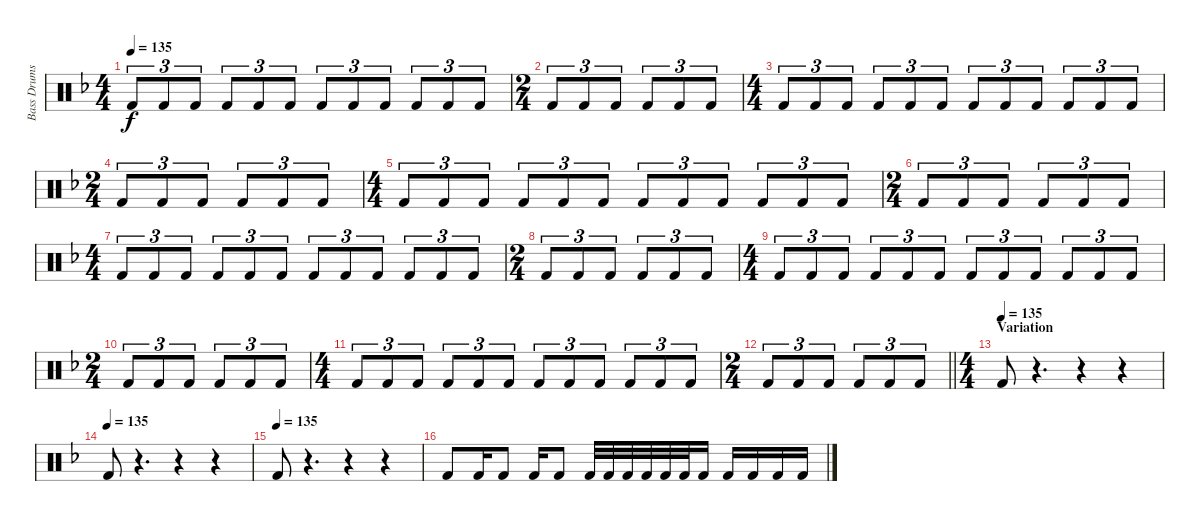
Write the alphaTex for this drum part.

\track ("Bass Drums" "Bass Drums") {instrument percussion}
\staff {score}
\articulation defaults
\ts (4 4)
\tempo 135
\clef neutral
\ks dminor "Kick (hit) 2".8{tu (3 2) dy f} "Kick (hit) 2".8{tu (3 2)} "Kick (hit) 2".8{tu (3 2)} "Kick (hit) 2".8{tu (3 2)} "Kick (hit) 2".8{tu (3 2)} "Kick (hit) 2".8{tu (3 2)} "Kick (hit) 2".8{tu (3 2)} "Kick (hit) 2".8{tu (3 2)} "Kick (hit) 2".8{tu (3 2)} "Kick (hit) 2".8{tu (3 2)} "Kick (hit) 2".8{tu (3 2)} "Kick (hit) 2".8{tu (3 2)}
|
\ts (2 4)
"Kick (hit) 2".8{tu (3 2)} "Kick (hit) 2".8{tu (3 2)} "Kick (hit) 2".8{tu (3 2)} "Kick (hit) 2".8{tu (3 2)} "Kick (hit) 2".8{tu (3 2)} "Kick (hit) 2".8{tu (3 2)} |
\ts (4 4)
"Kick (hit) 2".8{tu (3 2)} "Kick (hit) 2".8{tu (3 2)} "Kick (hit) 2".8{tu (3 2)} "Kick (hit) 2".8{tu (3 2)} "Kick (hit) 2".8{tu (3 2)} "Kick (hit) 2".8{tu (3 2)} "Kick (hit) 2".8{tu (3 2)} "Kick (hit) 2".8{tu (3 2)} "Kick (hit) 2".8{tu (3 2)} "Kick (hit) 2".8{tu (3 2)} "Kick (hit) 2".8{tu (3 2)} "Kick (hit) 2".8{tu (3 2)} |
\ts (2 4)
"Kick (hit) 2".8{tu (3 2)} "Kick (hit) 2".8{tu (3 2)} "Kick (hit) 2".8{tu (3 2)} "Kick (hit) 2".8{tu (3 2)} "Kick (hit) 2".8{tu (3 2)} "Kick (hit) 2".8{tu (3 2)} |
\ts (4 4)
"Kick (hit) 2".8{tu (3 2)} "Kick (hit) 2".8{tu (3 2)} "Kick (hit) 2".8{tu (3 2)} "Kick (hit) 2".8{tu (3 2)} "Kick (hit) 2".8{tu (3 2)} "Kick (hit) 2".8{tu (3 2)} "Kick (hit) 2".8{tu (3 2)} "Kick (hit) 2".8{tu (3 2)} "Kick (hit) 2".8{tu (3 2)} "Kick (hit) 2".8{tu (3 2)} "Kick (hit) 2".8{tu (3 2)} "Kick (hit) 2".8{tu (3 2)} |
\ts (2 4)
"Kick (hit) 2".8{tu (3 2)} "Kick (hit) 2".8{tu (3 2)} "Kick (hit) 2".8{tu (3 2)} "Kick (hit) 2".8{tu (3 2)} "Kick (hit) 2".8{tu (3 2)} "Kick (hit) 2".8{tu (3 2)} |
\ts (4 4)
"Kick (hit) 2".8{tu (3 2)} "Kick (hit) 2".8{tu (3 2)} "Kick (hit) 2".8{tu (3 2)} "Kick (hit) 2".8{tu (3 2)} "Kick (hit) 2".8{tu (3 2)} "Kick (hit) 2".8{tu (3 2)} "Kick (hit) 2".8{tu (3 2)} "Kick (hit) 2".8{tu (3 2)} "Kick (hit) 2".8{tu (3 2)} "Kick (hit) 2".8{tu (3 2)} "Kick (hit) 2".8{tu (3 2)} "Kick (hit) 2".8{tu (3 2)} |
\ts (2 4)
"Kick (hit) 2".8{tu (3 2)} "Kick (hit) 2".8{tu (3 2)} "Kick (hit) 2".8{tu (3 2)} "Kick (hit) 2".8{tu (3 2)} "Kick (hit) 2".8{tu (3 2)} "Kick (hit) 2".8{tu (3 2)} |
\ts (4 4)
"Kick (hit) 2".8{tu (3 2)} "Kick (hit) 2".8{tu (3 2)} "Kick (hit) 2".8{tu (3 2)} "Kick (hit) 2".8{tu (3 2)} "Kick (hit) 2".8{tu (3 2)} "Kick (hit) 2".8{tu (3 2)} "Kick (hit) 2".8{tu (3 2)} "Kick (hit) 2".8{tu (3 2)} "Kick (hit) 2".8{tu (3 2)} "Kick (hit) 2".8{tu (3 2)} "Kick (hit) 2".8{tu (3 2)} "Kick (hit) 2".8{tu (3 2)} |
\ts (2 4)
"Kick (hit) 2".8{tu (3 2)} "Kick (hit) 2".8{tu (3 2)} "Kick (hit) 2".8{tu (3 2)} "Kick (hit) 2".8{tu (3 2)} "Kick (hit) 2".8{tu (3 2)} "Kick (hit) 2".8{tu (3 2)} |
\ts (4 4)
"Kick (hit) 2".8{tu (3 2)} "Kick (hit) 2".8{tu (3 2)} "Kick (hit) 2".8{tu (3 2)} "Kick (hit) 2".8{tu (3 2)} "Kick (hit) 2".8{tu (3 2)} "Kick (hit) 2".8{tu (3 2)} "Kick (hit) 2".8{tu (3 2)} "Kick (hit) 2".8{tu (3 2)} "Kick (hit) 2".8{tu (3 2)} "Kick (hit) 2".8{tu (3 2)} "Kick (hit) 2".8{tu (3 2)} "Kick (hit) 2".8{tu (3 2)} |
\ts (2 4)
\barLineRight lightlight "Kick (hit) 2".8{tu (3 2)} "Kick (hit) 2".8{tu (3 2)} "Kick (hit) 2".8{tu (3 2)} "Kick (hit) 2".8{tu (3 2)} "Kick (hit) 2".8{tu (3 2)} "Kick (hit) 2".8{tu (3 2)}
|
\ts (4 4)
\section ("" "Variation")
\tempo (135)
"Kick (hit) 2".8 r.4{d} r.4 r.4 |
\tempo (135)
"Kick (hit) 2".8 r.4{d} r.4 r.4 |
\tempo (135)
"Kick (hit) 2".8 r.4{d} r.4 r.4 |
"Kick (hit) 2".8 "Kick (hit) 2".16 "Kick (hit) 2".8 "Kick (hit) 2".16 "Kick (hit) 2".8 "Kick (hit) 2".32 "Kick (hit) 2".32 "Kick (hit) 2".32 "Kick (hit) 2".32 "Kick (hit) 2".32 "Kick (hit) 2".32 "Kick (hit) 2".16 "Kick (hit) 2".16 "Kick (hit) 2".16 "Kick (hit) 2".16 "Kick (hit) 2".16
